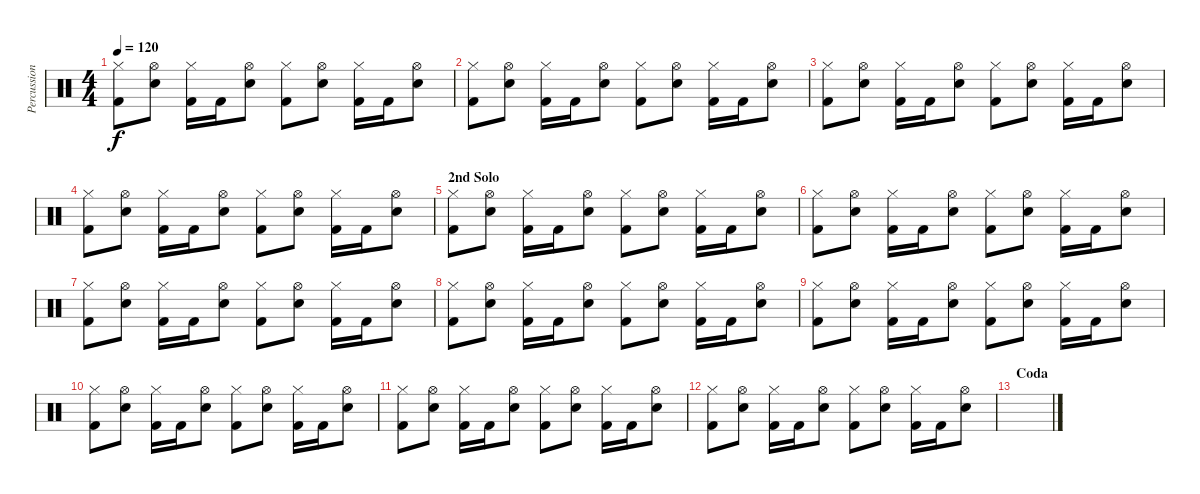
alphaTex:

\track ("Percussion" "Percussion") {instrument percussion}
\staff {score}
\articulation defaults
\ts (4 4)
\tempo 120
\clef neutral
\ks c
("Hi-Hat (closed)" "Kick (hit) 2").8{dy f} ("Hi-Hat (open)" "Snare (hit) 2").8 ("Hi-Hat (closed)" "Kick (hit) 2").16 "Kick (hit) 2".16 ("Hi-Hat (open)" "Snare (hit) 2").8 ("Hi-Hat (closed)" "Kick (hit) 2").8 ("Hi-Hat (open)" "Snare (hit) 2").8 ("Hi-Hat (closed)" "Kick (hit) 2").16 "Kick (hit) 2".16 ("Hi-Hat (open)" "Snare (hit) 2").8 |
("Hi-Hat (closed)" "Kick (hit) 2").8 ("Hi-Hat (open)" "Snare (hit) 2").8 ("Hi-Hat (closed)" "Kick (hit) 2").16 "Kick (hit) 2".16 ("Hi-Hat (open)" "Snare (hit) 2").8 ("Hi-Hat (closed)" "Kick (hit) 2").8 ("Hi-Hat (open)" "Snare (hit) 2").8 ("Hi-Hat (closed)" "Kick (hit) 2").16 "Kick (hit) 2".16 ("Hi-Hat (open)" "Snare (hit) 2").8 |
("Hi-Hat (closed)" "Kick (hit) 2").8 ("Hi-Hat (open)" "Snare (hit) 2").8 ("Hi-Hat (closed)" "Kick (hit) 2").16 "Kick (hit) 2".16 ("Hi-Hat (open)" "Snare (hit) 2").8 ("Hi-Hat (closed)" "Kick (hit) 2").8 ("Hi-Hat (open)" "Snare (hit) 2").8 ("Hi-Hat (closed)" "Kick (hit) 2").16 "Kick (hit) 2".16 ("Hi-Hat (open)" "Snare (hit) 2").8 |
("Hi-Hat (closed)" "Kick (hit) 2").8 ("Hi-Hat (open)" "Snare (hit) 2").8 ("Hi-Hat (closed)" "Kick (hit) 2").16 "Kick (hit) 2".16 ("Hi-Hat (open)" "Snare (hit) 2").8 ("Hi-Hat (closed)" "Kick (hit) 2").8 ("Hi-Hat (open)" "Snare (hit) 2").8 ("Hi-Hat (closed)" "Kick (hit) 2").16 "Kick (hit) 2".16 ("Hi-Hat (open)" "Snare (hit) 2").8 |
\section ("" "2nd Solo")
("Hi-Hat (closed)" "Kick (hit) 2").8 ("Hi-Hat (open)" "Snare (hit) 2").8 ("Hi-Hat (closed)" "Kick (hit) 2").16 "Kick (hit) 2".16 ("Hi-Hat (open)" "Snare (hit) 2").8 ("Hi-Hat (closed)" "Kick (hit) 2").8 ("Hi-Hat (open)" "Snare (hit) 2").8 ("Hi-Hat (closed)" "Kick (hit) 2").16 "Kick (hit) 2".16 ("Hi-Hat (open)" "Snare (hit) 2").8 |
("Hi-Hat (closed)" "Kick (hit) 2").8 ("Hi-Hat (open)" "Snare (hit) 2").8 ("Hi-Hat (closed)" "Kick (hit) 2").16 "Kick (hit) 2".16 ("Hi-Hat (open)" "Snare (hit) 2").8 ("Hi-Hat (closed)" "Kick (hit) 2").8 ("Hi-Hat (open)" "Snare (hit) 2").8 ("Hi-Hat (closed)" "Kick (hit) 2").16 "Kick (hit) 2".16 ("Hi-Hat (open)" "Snare (hit) 2").8 |
("Hi-Hat (closed)" "Kick (hit) 2").8 ("Hi-Hat (open)" "Snare (hit) 2").8 ("Hi-Hat (closed)" "Kick (hit) 2").16 "Kick (hit) 2".16 ("Hi-Hat (open)" "Snare (hit) 2").8 ("Hi-Hat (closed)" "Kick (hit) 2").8 ("Hi-Hat (open)" "Snare (hit) 2").8 ("Hi-Hat (closed)" "Kick (hit) 2").16 "Kick (hit) 2".16 ("Hi-Hat (open)" "Snare (hit) 2").8 |
("Hi-Hat (closed)" "Kick (hit) 2").8 ("Hi-Hat (open)" "Snare (hit) 2").8 ("Hi-Hat (closed)" "Kick (hit) 2").16 "Kick (hit) 2".16 ("Hi-Hat (open)" "Snare (hit) 2").8 ("Hi-Hat (closed)" "Kick (hit) 2").8 ("Hi-Hat (open)" "Snare (hit) 2").8 ("Hi-Hat (closed)" "Kick (hit) 2").16 "Kick (hit) 2".16 ("Hi-Hat (open)" "Snare (hit) 2").8 |
("Hi-Hat (closed)" "Kick (hit) 2").8 ("Hi-Hat (open)" "Snare (hit) 2").8 ("Hi-Hat (closed)" "Kick (hit) 2").16 "Kick (hit) 2".16 ("Hi-Hat (open)" "Snare (hit) 2").8 ("Hi-Hat (closed)" "Kick (hit) 2").8 ("Hi-Hat (open)" "Snare (hit) 2").8 ("Hi-Hat (closed)" "Kick (hit) 2").16 "Kick (hit) 2".16 ("Hi-Hat (open)" "Snare (hit) 2").8 |
("Hi-Hat (closed)" "Kick (hit) 2").8 ("Hi-Hat (open)" "Snare (hit) 2").8 ("Hi-Hat (closed)" "Kick (hit) 2").16 "Kick (hit) 2".16 ("Hi-Hat (open)" "Snare (hit) 2").8 ("Hi-Hat (closed)" "Kick (hit) 2").8 ("Hi-Hat (open)" "Snare (hit) 2").8 ("Hi-Hat (closed)" "Kick (hit) 2").16 "Kick (hit) 2".16 ("Hi-Hat (open)" "Snare (hit) 2").8 |
("Hi-Hat (closed)" "Kick (hit) 2").8 ("Hi-Hat (open)" "Snare (hit) 2").8 ("Hi-Hat (closed)" "Kick (hit) 2").16 "Kick (hit) 2".16 ("Hi-Hat (open)" "Snare (hit) 2").8 ("Hi-Hat (closed)" "Kick (hit) 2").8 ("Hi-Hat (open)" "Snare (hit) 2").8 ("Hi-Hat (closed)" "Kick (hit) 2").16 "Kick (hit) 2".16 ("Hi-Hat (open)" "Snare (hit) 2").8 |
("Hi-Hat (closed)" "Kick (hit) 2").8 ("Hi-Hat (open)" "Snare (hit) 2").8 ("Hi-Hat (closed)" "Kick (hit) 2").16 "Kick (hit) 2".16 ("Hi-Hat (open)" "Snare (hit) 2").8 ("Hi-Hat (closed)" "Kick (hit) 2").8 ("Hi-Hat (open)" "Snare (hit) 2").8 ("Hi-Hat (closed)" "Kick (hit) 2").16 "Kick (hit) 2".16 ("Hi-Hat (open)" "Snare (hit) 2").8 |
\section ("" "Coda")
